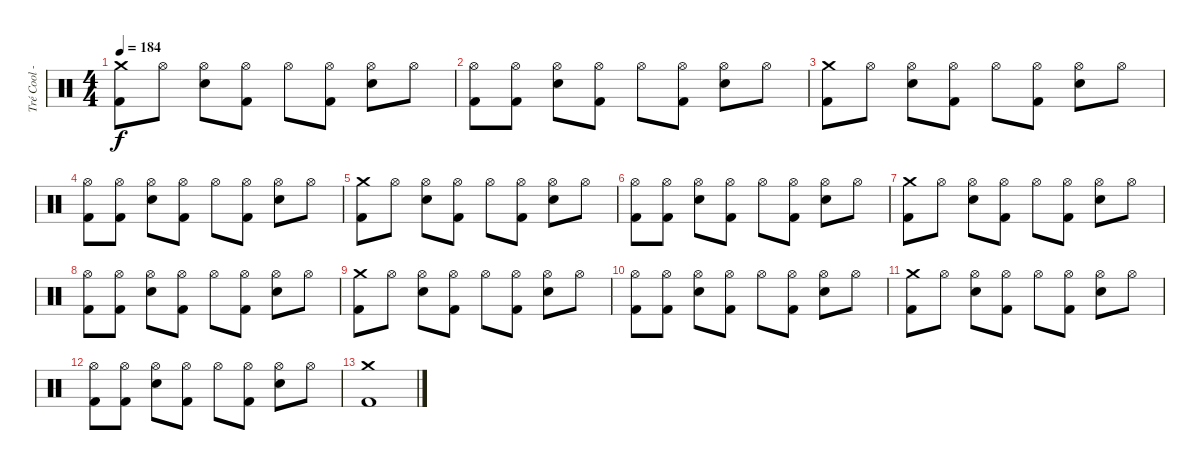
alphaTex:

\track ("Tré Cool - Drums" "Tré Cool -") {instrument percussion}
\staff {score}
\articulation defaults
\ts (4 4)
\tempo 184
\clef neutral
\ks c
("Crash medium (hit)" "Kick (hit) 2").8{dy f} "Hi-Hat (open)".8 ("Hi-Hat (open)" "Electric Snare (hit)").8 ("Hi-Hat (open)" "Kick (hit) 2").8 "Hi-Hat (open)".8 ("Hi-Hat (open)" "Kick (hit) 2").8 ("Hi-Hat (open)" "Electric Snare (hit)").8 "Hi-Hat (open)".8 |
("Hi-Hat (open)" "Kick (hit) 2").8 ("Hi-Hat (open)" "Kick (hit) 2").8 ("Hi-Hat (open)" "Electric Snare (hit)").8 ("Hi-Hat (open)" "Kick (hit) 2").8 "Hi-Hat (open)".8 ("Hi-Hat (open)" "Kick (hit) 2").8 ("Hi-Hat (open)" "Electric Snare (hit)").8 "Hi-Hat (open)".8 |
("Crash medium (hit)" "Kick (hit) 2").8 "Hi-Hat (open)".8 ("Hi-Hat (open)" "Electric Snare (hit)").8 ("Hi-Hat (open)" "Kick (hit) 2").8 "Hi-Hat (open)".8 ("Hi-Hat (open)" "Kick (hit) 2").8 ("Hi-Hat (open)" "Electric Snare (hit)").8 "Hi-Hat (open)".8 |
("Hi-Hat (open)" "Kick (hit) 2").8 ("Hi-Hat (open)" "Kick (hit) 2").8 ("Hi-Hat (open)" "Electric Snare (hit)").8 ("Hi-Hat (open)" "Kick (hit) 2").8 "Hi-Hat (open)".8 ("Hi-Hat (open)" "Kick (hit) 2").8 ("Hi-Hat (open)" "Electric Snare (hit)").8 "Hi-Hat (open)".8 |
("Crash medium (hit)" "Kick (hit) 2").8 "Hi-Hat (open)".8 ("Hi-Hat (open)" "Electric Snare (hit)").8 ("Hi-Hat (open)" "Kick (hit) 2").8 "Hi-Hat (open)".8 ("Hi-Hat (open)" "Kick (hit) 2").8 ("Hi-Hat (open)" "Electric Snare (hit)").8 "Hi-Hat (open)".8 |
("Hi-Hat (open)" "Kick (hit) 2").8 ("Hi-Hat (open)" "Kick (hit) 2").8 ("Hi-Hat (open)" "Electric Snare (hit)").8 ("Hi-Hat (open)" "Kick (hit) 2").8 "Hi-Hat (open)".8 ("Hi-Hat (open)" "Kick (hit) 2").8 ("Hi-Hat (open)" "Electric Snare (hit)").8 "Hi-Hat (open)".8 |
("Crash medium (hit)" "Kick (hit) 2").8 "Hi-Hat (open)".8 ("Hi-Hat (open)" "Electric Snare (hit)").8 ("Hi-Hat (open)" "Kick (hit) 2").8 "Hi-Hat (open)".8 ("Hi-Hat (open)" "Kick (hit) 2").8 ("Hi-Hat (open)" "Electric Snare (hit)").8 "Hi-Hat (open)".8 |
("Hi-Hat (open)" "Kick (hit) 2").8 ("Hi-Hat (open)" "Kick (hit) 2").8 ("Hi-Hat (open)" "Electric Snare (hit)").8 ("Hi-Hat (open)" "Kick (hit) 2").8 "Hi-Hat (open)".8 ("Hi-Hat (open)" "Kick (hit) 2").8 ("Hi-Hat (open)" "Electric Snare (hit)").8 "Hi-Hat (open)".8 |
("Crash medium (hit)" "Kick (hit) 2").8 "Hi-Hat (open)".8 ("Hi-Hat (open)" "Electric Snare (hit)").8 ("Hi-Hat (open)" "Kick (hit) 2").8 "Hi-Hat (open)".8 ("Hi-Hat (open)" "Kick (hit) 2").8 ("Hi-Hat (open)" "Electric Snare (hit)").8 "Hi-Hat (open)".8 |
("Hi-Hat (open)" "Kick (hit) 2").8 ("Hi-Hat (open)" "Kick (hit) 2").8 ("Hi-Hat (open)" "Electric Snare (hit)").8 ("Hi-Hat (open)" "Kick (hit) 2").8 "Hi-Hat (open)".8 ("Hi-Hat (open)" "Kick (hit) 2").8 ("Hi-Hat (open)" "Electric Snare (hit)").8 "Hi-Hat (open)".8 |
("Crash medium (hit)" "Kick (hit) 2").8 "Hi-Hat (open)".8 ("Hi-Hat (open)" "Electric Snare (hit)").8 ("Hi-Hat (open)" "Kick (hit) 2").8 "Hi-Hat (open)".8 ("Hi-Hat (open)" "Kick (hit) 2").8 ("Hi-Hat (open)" "Electric Snare (hit)").8 "Hi-Hat (open)".8 |
("Hi-Hat (open)" "Kick (hit) 2").8 ("Hi-Hat (open)" "Kick (hit) 2").8 ("Hi-Hat (open)" "Electric Snare (hit)").8 ("Hi-Hat (open)" "Kick (hit) 2").8 "Hi-Hat (open)".8 ("Hi-Hat (open)" "Kick (hit) 2").8 ("Hi-Hat (open)" "Electric Snare (hit)").8 "Hi-Hat (open)".8 |
("Crash medium (hit)" "Kick (hit) 2").1
